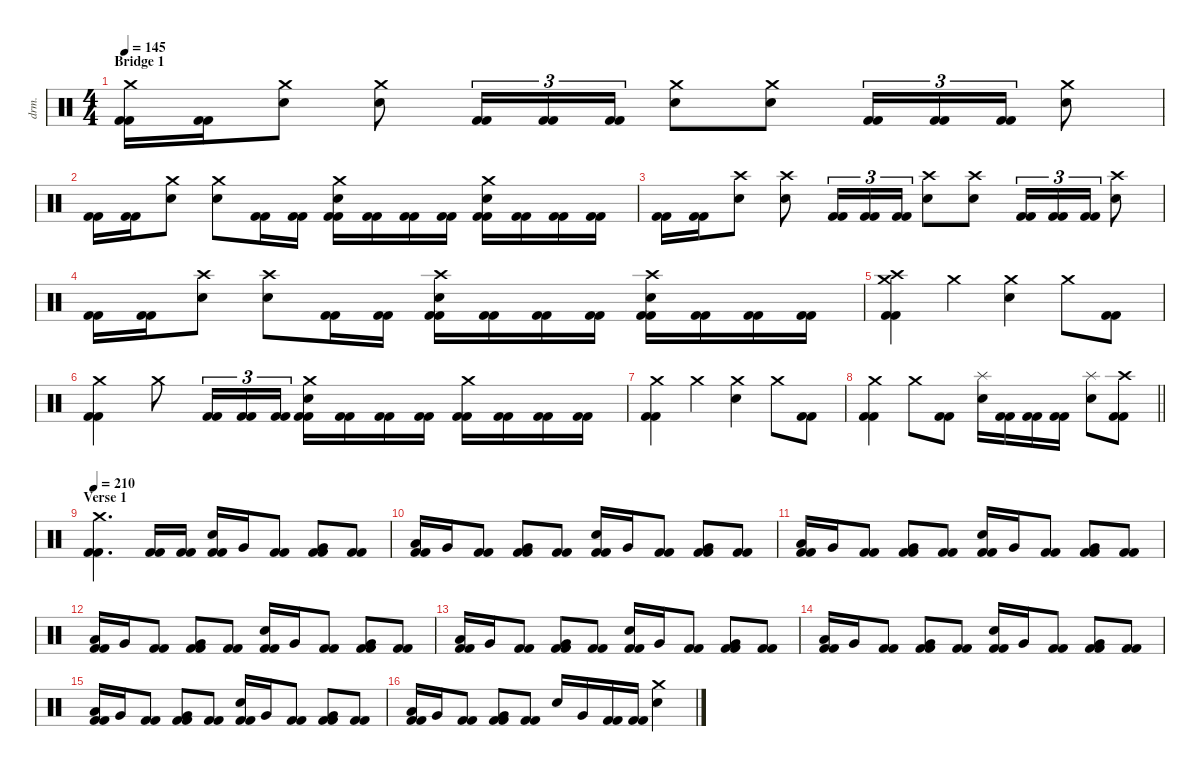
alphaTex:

\defaultSystemsLayout 4
\hideDynamics
\bracketExtendMode nobrackets
\otherSystemsTrackNameOrientation horizontal
\track ("Chris Adler" "drm.") {instrument percussion}
\staff {score}
\articulation defaults
\ts (4 4)
\section ("" "Bridge 1")
\tempo 145
\clef neutral
\ks c
("Crash medium (hit)" "Kick (hit) 2" "Kick (hit) 2").16{dy f} ("Kick (hit) 2" "Kick (hit) 2").16 ("Crash medium (hit)" "Snare (hit) 2").8 ("Crash medium (hit)" "Snare (hit) 2").8 ("Kick (hit) 2" "Kick (hit) 2").16{tu (3 2)} ("Kick (hit) 2" "Kick (hit) 2").16{tu (3 2)} ("Kick (hit) 2" "Kick (hit) 2").16{tu (3 2)} ("Crash medium (hit)" "Snare (hit) 2").8 ("Crash medium (hit)" "Snare (hit) 2").8 ("Kick (hit) 2" "Kick (hit) 2").16{tu (3 2)} ("Kick (hit) 2" "Kick (hit) 2").16{tu (3 2)} ("Kick (hit) 2" "Kick (hit) 2").16{tu (3 2)} ("Crash medium (hit)" "Snare (hit) 2").8 |
("Kick (hit) 2" "Kick (hit) 2").16 ("Kick (hit) 2" "Kick (hit) 2").16 ("Crash medium (hit)" "Snare (hit) 2").8 ("Crash medium (hit)" "Snare (hit) 2").8 ("Kick (hit) 2" "Kick (hit) 2").16 ("Kick (hit) 2" "Kick (hit) 2").16 ("Crash medium (hit)" "Snare (hit) 2" "Kick (hit) 2" "Kick (hit) 2").16 ("Kick (hit) 2" "Kick (hit) 2").16 ("Kick (hit) 2" "Kick (hit) 2").16 ("Kick (hit) 2" "Kick (hit) 2").16 ("Crash medium (hit)" "Snare (hit) 2" "Kick (hit) 2" "Kick (hit) 2").16 ("Kick (hit) 2" "Kick (hit) 2").16 ("Kick (hit) 2" "Kick (hit) 2").16 ("Kick (hit) 2" "Kick (hit) 2").16 |
("Kick (hit) 2" "Kick (hit) 2").16 ("Kick (hit) 2" "Kick (hit) 2").16 ("Crash high (hit)" "Snare (hit) 2").8 ("Crash high (hit)" "Snare (hit) 2").8 ("Kick (hit) 2" "Kick (hit) 2").16{tu (3 2)} ("Kick (hit) 2" "Kick (hit) 2").16{tu (3 2)} ("Kick (hit) 2" "Kick (hit) 2").16{tu (3 2)} ("Crash high (hit)" "Snare (hit) 2").8 ("Crash high (hit)" "Snare (hit) 2").8 ("Kick (hit) 2" "Kick (hit) 2").16{tu (3 2)} ("Kick (hit) 2" "Kick (hit) 2").16{tu (3 2)} ("Kick (hit) 2" "Kick (hit) 2").16{tu (3 2)} ("Crash high (hit)" "Snare (hit) 2").8 |
("Kick (hit) 2" "Kick (hit) 2").16 ("Kick (hit) 2" "Kick (hit) 2").16 ("Crash high (hit)" "Snare (hit) 2").8 ("Crash high (hit)" "Snare (hit) 2").8 ("Kick (hit) 2" "Kick (hit) 2").16 ("Kick (hit) 2" "Kick (hit) 2").16 ("Crash high (hit)" "Snare (hit) 2" "Kick (hit) 2" "Kick (hit) 2").16 ("Kick (hit) 2" "Kick (hit) 2").16 ("Kick (hit) 2" "Kick (hit) 2").16 ("Kick (hit) 2" "Kick (hit) 2").16 ("Crash high (hit)" "Snare (hit) 2" "Kick (hit) 2" "Kick (hit) 2").16 ("Kick (hit) 2" "Kick (hit) 2").16 ("Kick (hit) 2" "Kick (hit) 2").16 ("Kick (hit) 2" "Kick (hit) 2").16 |
("Crash medium (hit)" "Crash high (hit)" "Kick (hit) 2" "Kick (hit) 2").4 "Crash medium (hit)".4 ("Crash medium (hit)" "Snare (hit) 2").4 "Crash medium (hit)".8 ("Kick (hit) 2" "Kick (hit) 2").8 |
("Crash medium (hit)" "Kick (hit) 2" "Kick (hit) 2").4 "Crash medium (hit)".8 ("Kick (hit) 2" "Kick (hit) 2").16{tu (3 2)} ("Kick (hit) 2" "Kick (hit) 2").16{tu (3 2)} ("Kick (hit) 2" "Kick (hit) 2").16{tu (3 2)} ("Crash medium (hit)" "Snare (hit) 2" "Kick (hit) 2" "Kick (hit) 2").16 ("Kick (hit) 2" "Kick (hit) 2").16 ("Kick (hit) 2" "Kick (hit) 2").16 ("Kick (hit) 2" "Kick (hit) 2").16 ("Crash medium (hit)" "Kick (hit) 2" "Kick (hit) 2").16 ("Kick (hit) 2" "Kick (hit) 2").16 ("Kick (hit) 2" "Kick (hit) 2").16 ("Kick (hit) 2" "Kick (hit) 2").16 |
("Crash medium (hit)" "Kick (hit) 2" "Kick (hit) 2").4 "Crash medium (hit)".4 ("Crash medium (hit)" "Snare (hit) 2").4 "Crash medium (hit)".8 ("Kick (hit) 2" "Kick (hit) 2").8 |
\barLineRight lightlight
("Crash medium (hit)" "Kick (hit) 2" "Kick (hit) 2").4 "Crash medium (hit)".8 ("Kick (hit) 2" "Kick (hit) 2").8 ("Splash (hit)" "Snare (hit) 2").16 ("Kick (hit) 2" "Kick (hit) 2").16 ("Kick (hit) 2" "Kick (hit) 2").16 ("Kick (hit) 2" "Kick (hit) 2").16 ("Splash (hit)" "Snare (hit) 2").8 ("Crash high (hit)" "Kick (hit) 2" "Kick (hit) 2").8 |
\section ("" "Verse 1")
\tempo 210
("Crash medium (hit)" "Kick (hit) 2" "Kick (hit) 2").4{d} ("Kick (hit) 2" "Kick (hit) 2").16 ("Kick (hit) 2" "Kick (hit) 2").16 ("Snare (hit) 2" "Kick (hit) 2" "Kick (hit) 2").16 "Very Low Tom (hit)".16 ("Kick (hit) 2" "Kick (hit) 2").8 ("Very Low Tom (hit)" "Kick (hit) 2" "Kick (hit) 2").8 ("Kick (hit) 2" "Kick (hit) 2").8 |
("Low Tom (hit)" "Kick (hit) 2" "Kick (hit) 2").16 "Very Low Tom (hit)".16 ("Kick (hit) 2" "Kick (hit) 2").8 ("Very Low Tom (hit)" "Kick (hit) 2" "Kick (hit) 2").8 ("Kick (hit) 2" "Kick (hit) 2").8 ("Snare (hit) 2" "Kick (hit) 2" "Kick (hit) 2").16 "Very Low Tom (hit)".16 ("Kick (hit) 2" "Kick (hit) 2").8 ("Very Low Tom (hit)" "Kick (hit) 2" "Kick (hit) 2").8 ("Kick (hit) 2" "Kick (hit) 2").8 |
("Low Tom (hit)" "Kick (hit) 2" "Kick (hit) 2").16 "Very Low Tom (hit)".16 ("Kick (hit) 2" "Kick (hit) 2").8 ("Very Low Tom (hit)" "Kick (hit) 2" "Kick (hit) 2").8 ("Kick (hit) 2" "Kick (hit) 2").8 ("Snare (hit) 2" "Kick (hit) 2" "Kick (hit) 2").16 "Very Low Tom (hit)".16 ("Kick (hit) 2" "Kick (hit) 2").8 ("Very Low Tom (hit)" "Kick (hit) 2" "Kick (hit) 2").8 ("Kick (hit) 2" "Kick (hit) 2").8 |
("Low Tom (hit)" "Kick (hit) 2" "Kick (hit) 2").16 "Very Low Tom (hit)".16 ("Kick (hit) 2" "Kick (hit) 2").8 ("Very Low Tom (hit)" "Kick (hit) 2" "Kick (hit) 2").8 ("Kick (hit) 2" "Kick (hit) 2").8 ("Snare (hit) 2" "Kick (hit) 2" "Kick (hit) 2").16 "Very Low Tom (hit)".16 ("Kick (hit) 2" "Kick (hit) 2").8 ("Very Low Tom (hit)" "Kick (hit) 2" "Kick (hit) 2").8 ("Kick (hit) 2" "Kick (hit) 2").8 |
("Low Tom (hit)" "Kick (hit) 2" "Kick (hit) 2").16 "Very Low Tom (hit)".16 ("Kick (hit) 2" "Kick (hit) 2").8 ("Very Low Tom (hit)" "Kick (hit) 2" "Kick (hit) 2").8 ("Kick (hit) 2" "Kick (hit) 2").8 ("Snare (hit) 2" "Kick (hit) 2" "Kick (hit) 2").16 "Very Low Tom (hit)".16 ("Kick (hit) 2" "Kick (hit) 2").8 ("Very Low Tom (hit)" "Kick (hit) 2" "Kick (hit) 2").8 ("Kick (hit) 2" "Kick (hit) 2").8 |
("Low Tom (hit)" "Kick (hit) 2" "Kick (hit) 2").16 "Very Low Tom (hit)".16 ("Kick (hit) 2" "Kick (hit) 2").8 ("Very Low Tom (hit)" "Kick (hit) 2" "Kick (hit) 2").8 ("Kick (hit) 2" "Kick (hit) 2").8 ("Snare (hit) 2" "Kick (hit) 2" "Kick (hit) 2").16 "Very Low Tom (hit)".16 ("Kick (hit) 2" "Kick (hit) 2").8 ("Very Low Tom (hit)" "Kick (hit) 2" "Kick (hit) 2").8 ("Kick (hit) 2" "Kick (hit) 2").8 |
("Low Tom (hit)" "Kick (hit) 2" "Kick (hit) 2").16 "Very Low Tom (hit)".16 ("Kick (hit) 2" "Kick (hit) 2").8 ("Very Low Tom (hit)" "Kick (hit) 2" "Kick (hit) 2").8 ("Kick (hit) 2" "Kick (hit) 2").8 ("Snare (hit) 2" "Kick (hit) 2" "Kick (hit) 2").16 "Very Low Tom (hit)".16 ("Kick (hit) 2" "Kick (hit) 2").8 ("Very Low Tom (hit)" "Kick (hit) 2" "Kick (hit) 2").8 ("Kick (hit) 2" "Kick (hit) 2").8 |
("Low Tom (hit)" "Kick (hit) 2" "Kick (hit) 2").16 "Very Low Tom (hit)".16 ("Kick (hit) 2" "Kick (hit) 2").8 ("Very Low Tom (hit)" "Kick (hit) 2" "Kick (hit) 2").8 ("Kick (hit) 2" "Kick (hit) 2").8 "Snare (hit) 2".16 "Very Low Tom (hit)".16 ("Kick (hit) 2" "Kick (hit) 2").16 ("Kick (hit) 2" "Kick (hit) 2").16 ("Crash medium (hit)" "Snare (hit) 2").4
